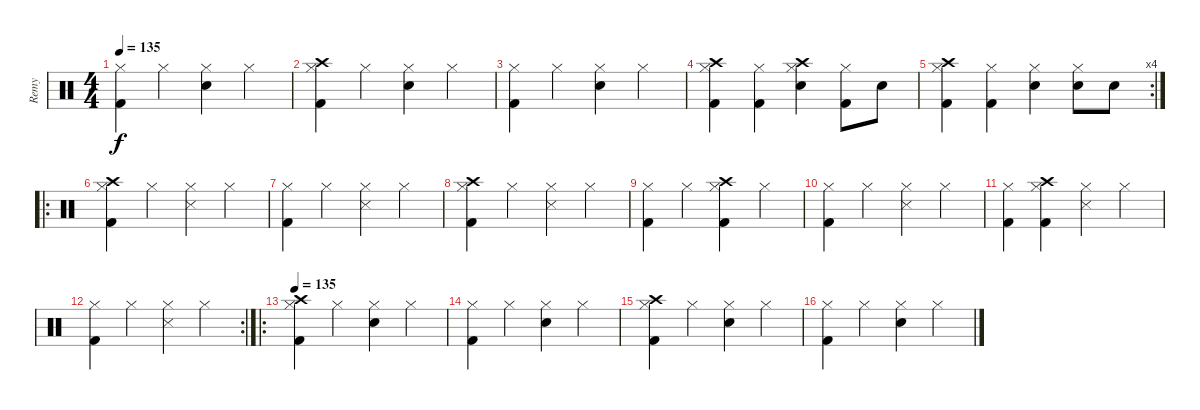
\track ("Remy" "Remy") {instrument percussion}
\staff {score}
\articulation defaults
\ts (4 4)
\tempo 135
\clef neutral
\ks c
("Hi-Hat (closed)" "Kick (hit) 2").4{dy f} "Hi-Hat (closed)".4 ("Snare (hit) 2" "Hi-Hat (closed)").4 "Hi-Hat (closed)".4 |
("Crash high (hit)" "Hi-Hat (closed)" "Kick (hit) 2").4 "Hi-Hat (closed)".4 ("Snare (hit) 2" "Hi-Hat (closed)").4 "Hi-Hat (closed)".4 |
("Hi-Hat (closed)" "Kick (hit) 2").4 "Hi-Hat (closed)".4 ("Snare (hit) 2" "Hi-Hat (closed)").4 "Hi-Hat (closed)".4 |
("Crash high (hit)" "Hi-Hat (closed)" "Kick (hit) 2").4 ("Hi-Hat (closed)" "Kick (hit) 2").4 ("Crash high (hit)" "Snare (hit) 2" "Hi-Hat (closed)").4 ("Hi-Hat (closed)" "Kick (hit) 2").8 "Snare (hit) 2".8 |
\rc 4
("Crash high (hit)" "Hi-Hat (closed)" "Kick (hit) 2").4 ("Hi-Hat (closed)" "Kick (hit) 2").4 ("Snare (hit) 2" "Hi-Hat (closed)").4 ("Snare (hit) 2" "Hi-Hat (closed)").8 "Snare (hit) 2".8 |
\ro
("Hi-Hat (closed)" "Crash high (hit)" "Kick (hit) 2").4 "Hi-Hat (closed)".4 ("Hi-Hat (closed)" "Snare (side stick) 3").4 "Hi-Hat (closed)".4 |
("Hi-Hat (closed)" "Kick (hit) 2").4 "Hi-Hat (closed)".4 ("Hi-Hat (closed)" "Snare (side stick) 3").4 "Hi-Hat (closed)".4 |
("Hi-Hat (closed)" "Crash high (hit)" "Kick (hit) 2").4 "Hi-Hat (closed)".4 ("Hi-Hat (closed)" "Snare (side stick) 3").4 "Hi-Hat (closed)".4 |
("Hi-Hat (closed)" "Kick (hit) 2").4 "Hi-Hat (closed)".4 ("Hi-Hat (closed)" "Crash high (hit)" "Kick (hit) 2").4 "Hi-Hat (closed)".4 |
("Hi-Hat (closed)" "Kick (hit) 2").4 "Hi-Hat (closed)".4 ("Hi-Hat (closed)" "Snare (side stick) 3").4 "Hi-Hat (closed)".4 |
("Hi-Hat (closed)" "Kick (hit) 2").4 ("Hi-Hat (closed)" "Crash high (hit)" "Kick (hit) 2").4 ("Hi-Hat (closed)" "Snare (side stick) 3").4 "Hi-Hat (closed)".4 |
\rc 2
("Hi-Hat (closed)" "Kick (hit) 2").4 "Hi-Hat (closed)".4 ("Hi-Hat (closed)" "Snare (side stick) 3").4 "Hi-Hat (closed)".4 |
\ro
\tempo 135
("Crash high (hit)" "Hi-Hat (closed)" "Kick (hit) 2").4 "Hi-Hat (closed)".4 ("Snare (hit) 2" "Hi-Hat (closed)").4 "Hi-Hat (closed)".4 |
("Hi-Hat (closed)" "Kick (hit) 2").4 "Hi-Hat (closed)".4 ("Snare (hit) 2" "Hi-Hat (closed)").4 "Hi-Hat (closed)".4 |
("Crash high (hit)" "Hi-Hat (closed)" "Kick (hit) 2").4 "Hi-Hat (closed)".4 ("Snare (hit) 2" "Hi-Hat (closed)").4 "Hi-Hat (closed)".4 |
("Hi-Hat (closed)" "Kick (hit) 2").4 "Hi-Hat (closed)".4 ("Snare (hit) 2" "Hi-Hat (closed)").4 "Hi-Hat (closed)".4
